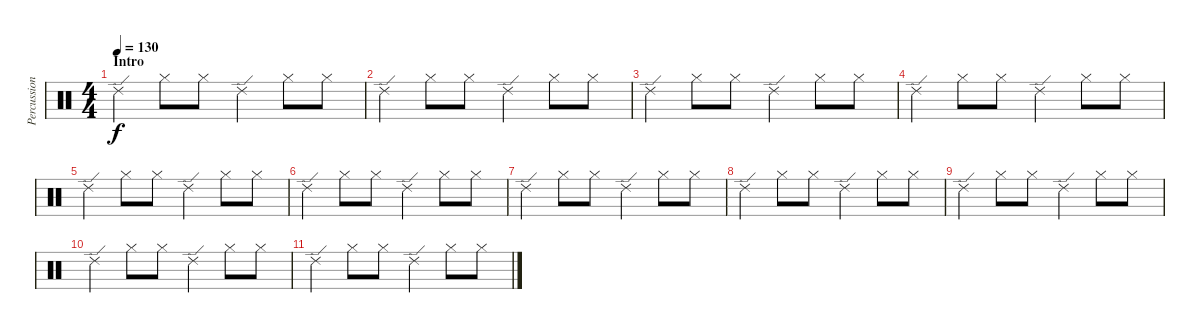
\track ("Percussion" "Percussion") {instrument percussion}
\staff {score}
\articulation defaults
\ts (4 4)
\section ("" "Intro")
\tempo 130
\clef neutral
\ks c "Ride (edge) 2".4{dy f} "Hi-Hat (closed)".8 "Hi-Hat (closed)".8 "Ride (edge) 2".4 "Hi-Hat (closed)".8 "Hi-Hat (closed)".8
|
"Ride (edge) 2".4 "Hi-Hat (closed)".8 "Hi-Hat (closed)".8 "Ride (edge) 2".4 "Hi-Hat (closed)".8 "Hi-Hat (closed)".8 |
"Ride (edge) 2".4 "Hi-Hat (closed)".8 "Hi-Hat (closed)".8 "Ride (edge) 2".4 "Hi-Hat (closed)".8 "Hi-Hat (closed)".8 |
"Ride (edge) 2".4 "Hi-Hat (closed)".8 "Hi-Hat (closed)".8 "Ride (edge) 2".4 "Hi-Hat (closed)".8 "Hi-Hat (closed)".8 |
"Ride (edge) 2".4 "Hi-Hat (closed)".8 "Hi-Hat (closed)".8 "Ride (edge) 2".4 "Hi-Hat (closed)".8 "Hi-Hat (closed)".8 |
"Ride (edge) 2".4 "Hi-Hat (closed)".8 "Hi-Hat (closed)".8 "Ride (edge) 2".4 "Hi-Hat (closed)".8 "Hi-Hat (closed)".8 |
"Ride (edge) 2".4 "Hi-Hat (closed)".8 "Hi-Hat (closed)".8 "Ride (edge) 2".4 "Hi-Hat (closed)".8 "Hi-Hat (closed)".8 |
"Ride (edge) 2".4 "Hi-Hat (closed)".8 "Hi-Hat (closed)".8 "Ride (edge) 2".4 "Hi-Hat (closed)".8 "Hi-Hat (closed)".8 |
"Ride (edge) 2".4 "Hi-Hat (closed)".8 "Hi-Hat (closed)".8 "Ride (edge) 2".4 "Hi-Hat (closed)".8 "Hi-Hat (closed)".8 |
"Ride (edge) 2".4 "Hi-Hat (closed)".8 "Hi-Hat (closed)".8 "Ride (edge) 2".4 "Hi-Hat (closed)".8 "Hi-Hat (closed)".8 |
"Ride (edge) 2".4 "Hi-Hat (closed)".8 "Hi-Hat (closed)".8 "Ride (edge) 2".4 "Hi-Hat (closed)".8 "Hi-Hat (closed)".8
